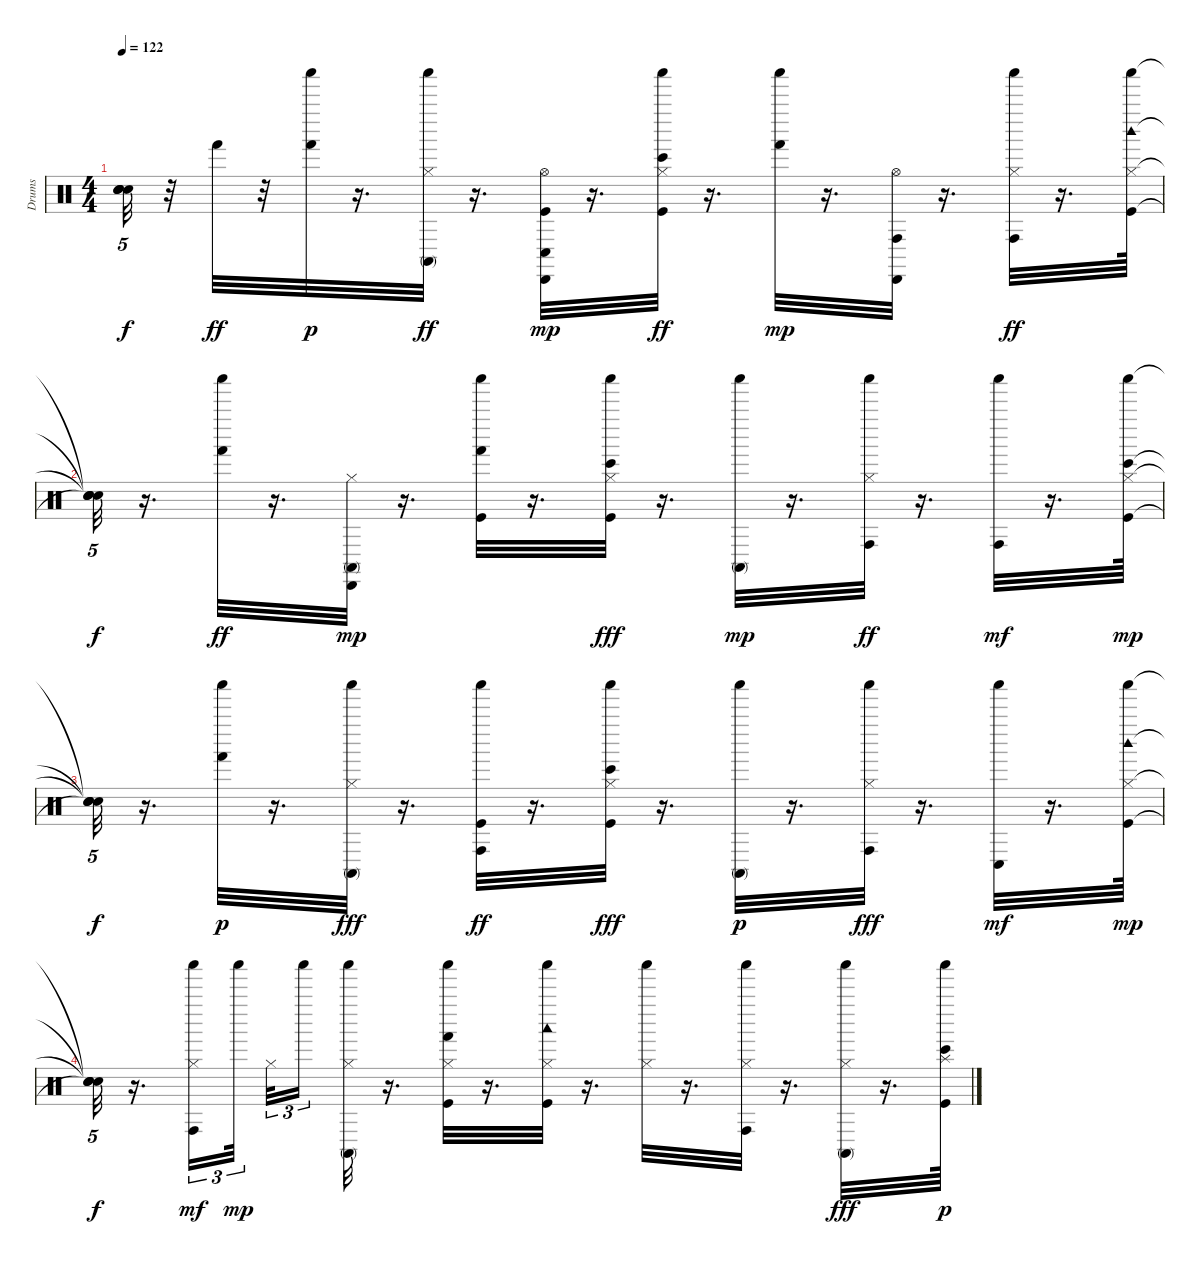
\track ("Drums" "Drums") {instrument percussion}
\staff {score}
\articulation defaults
\ts (4 4)
\tempo 122
\clef neutral
\ks c
("Snare (hit)"{t} "Snare (hit)"{t} "Snare (hit)"{t} "Snare (hit)"{t}).32{tu (5 4) dy f} r.32 "Hand (hit)".32{dy ff} r.32 ("Hand (hit)" "Shaker (hit)").32{dy p} r.16{d} ("Shaker (hit)" "Hi-Hat (closed)" "Conga high (mute)").32{dy ff} r.16{d} ("Kick (hit)" "Hi-Hat (open)" "Conga low (hit)" "Cabasa (hit)").32{dy mp} r.16{d} ("Shaker (hit)" "Kick (hit)" "Hi-Hat (closed)" "Bongo High (hit)").32{dy ff} r.16{d} ("Shaker (hit)" "Hand (hit)").32{dy mp} r.16{d} ("Hi-Hat (open)" "Conga high (hit)" "Cabasa (hit)").32 r.16{d} ("Shaker (hit)" "Hi-Hat (closed)" "Conga high (hit)").32{dy ff} r.16{d} ("Shaker (hit)" "Kick (hit)" "Hi-Hat (closed)" "Woodblock high (hit)").64 |
("Snare (hit)"{t} "Snare (hit)"{t} "Snare (hit)"{t} "Snare (hit)"{t}).32{tu (5 4) dy f} r.16{d} ("Shaker (hit)" "Hand (hit)").32{dy ff} r.16{d} ("Hi-Hat (closed)" "Conga high (mute)" "Cabasa (hit)").32{dy mp} r.16{d} ("Shaker (hit)" "Kick (hit)" "Hand (hit)").32 r.16{d} ("Shaker (hit)" "Kick (hit)" "Hi-Hat (closed)" "Bongo High (hit)").32{dy fff} r.16{d} ("Shaker (hit)" "Conga high (mute)").32{dy mp} r.16{d} ("Hi-Hat (closed)" "Shaker (hit)" "Conga high (hit)").32{dy ff} r.16{d} ("Shaker (hit)" "Conga high (hit)").32{dy mf} r.16{d} ("Kick (hit)" "Hi-Hat (closed)" "Bongo High (hit)" "Shaker (hit)").64{dy mp} |
("Snare (hit)"{t} "Snare (hit)"{t} "Snare (hit)"{t} "Snare (hit)"{t}).32{tu (5 4) dy f} r.16{d} ("Hand (hit)" "Shaker (hit)").32{dy p} r.16{d} ("Shaker (hit)" "Hi-Hat (closed)" "Conga high (mute)").32{dy fff} r.16{d} ("Shaker (hit)" "Kick (hit)" "Conga high (hit)").32{dy ff} r.16{d} ("Shaker (hit)" "Kick (hit)" "Hi-Hat (closed)" "Bongo High (hit)").32{dy fff} r.16{d} ("Shaker (hit)" "Conga high (mute)").32{dy p} r.16{d} ("Shaker (hit)" "Hi-Hat (closed)" "Conga high (hit)").32{dy fff} r.16{d} ("Shaker (hit)" "Conga low (hit)").32{dy mf} r.16{d} ("Woodblock high (hit)" "Kick (hit)" "Hi-Hat (closed)" "Shaker (hit)").64{dy mp} |
("Snare (hit)"{t} "Snare (hit)"{t} "Snare (hit)"{t} "Snare (hit)"{t}).32{tu (5 4) dy f} r.16{d} ("Shaker (hit)" "Hi-Hat (closed)" "Conga high (hit)").16{tu (3 2) dy mf} "Shaker (hit)".32{tu (3 2) dy mp beam splitsecondary} "Hi-Hat (closed)".32{tu (3 2)} "Shaker (hit)".16{tu (3 2) beam splitsecondary} ("Hi-Hat (closed)" "Conga high (mute)" "Shaker (hit)").32 r.16{d} ("Kick (hit)" "Hi-Hat (closed)" "Hand (hit)" "Shaker (hit)").32 r.16{d} ("Woodblock low (hit)" "Kick (hit)" "Hi-Hat (closed)" "Shaker (hit)").32 r.16{d} ("Shaker (hit)" "Hi-Hat (closed)").32 r.16{d} ("Hi-Hat (closed)" "Conga high (hit)" "Shaker (hit)").32 r.16{d} ("Shaker (hit)" "Hi-Hat (closed)" "Conga high (mute)").32{dy fff} r.16{d} ("Kick (hit)" "Splash (hit)" "Bongo High (hit)" "Shaker (hit)").64{dy p}
